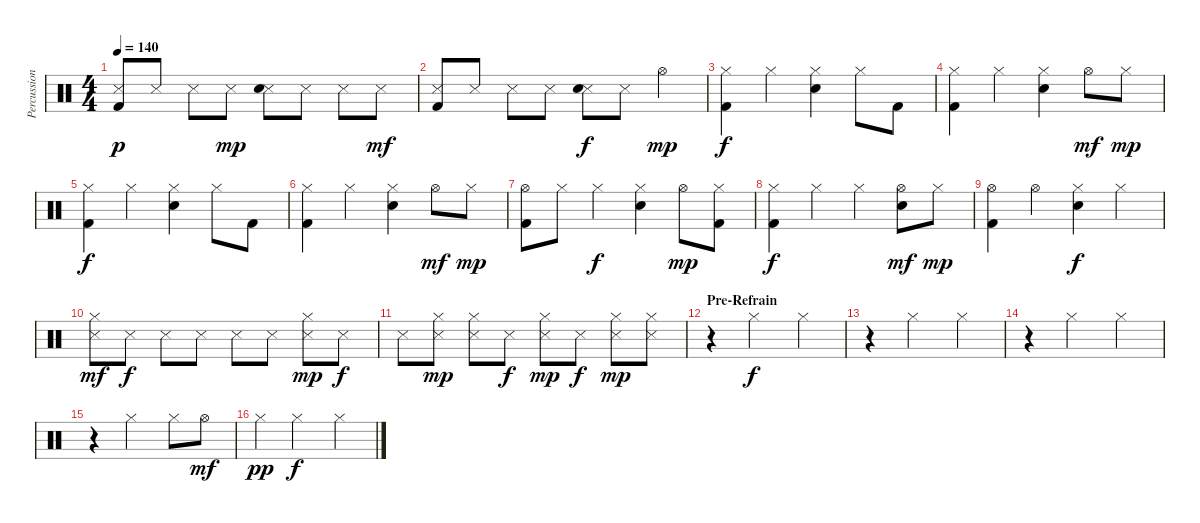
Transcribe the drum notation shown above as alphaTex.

\track ("Percussion" "Percussion") {instrument percussion}
\staff {score}
\articulation defaults
\ts (4 4)
\tempo 140
\clef neutral
\ks c
("Snare (side stick) 3" "Kick (hit) 2").8{dy p} "Snare (side stick) 3".8 "Snare (side stick) 3".8 "Snare (side stick) 3".8{dy mp} ("Snare (side stick) 3" "Electric Snare (hit)").8 "Snare (side stick) 3".8 "Snare (side stick) 3".8 "Snare (side stick) 3".8{dy mf} |
("Snare (side stick) 3" "Kick (hit) 2").8 "Snare (side stick) 3".8 "Snare (side stick) 3".8 "Snare (side stick) 3".8 ("Snare (side stick) 3" "Electric Snare (hit)").8{dy f} "Snare (side stick) 3".8 "Hi-Hat (open)".4{dy mp} |
("Hi-Hat (closed)" "Kick (hit) 2").4{dy f} "Hi-Hat (closed)".4 ("Hi-Hat (closed)" "Electric Snare (hit)").4 "Hi-Hat (closed)".8 "Kick (hit) 2".8 |
("Hi-Hat (closed)" "Kick (hit) 2").4 "Hi-Hat (closed)".4 ("Hi-Hat (closed)" "Electric Snare (hit)").4 "Hi-Hat (open)".8{dy mf} "Hi-Hat (closed)".8{dy mp} |
("Hi-Hat (closed)" "Kick (hit) 2").4{dy f} "Hi-Hat (closed)".4 ("Hi-Hat (closed)" "Electric Snare (hit)").4 "Hi-Hat (closed)".8 "Kick (hit) 2".8 |
("Hi-Hat (closed)" "Kick (hit) 2").4 "Hi-Hat (closed)".4 ("Hi-Hat (closed)" "Electric Snare (hit)").4 "Hi-Hat (open)".8{dy mf} "Hi-Hat (closed)".8{dy mp} |
("Hi-Hat (open)" "Kick (hit) 2").8 "Hi-Hat (closed)".8 "Hi-Hat (closed)".4{dy f} ("Hi-Hat (closed)" "Electric Snare (hit)").4 "Hi-Hat (open)".8{dy mp} ("Hi-Hat (closed)" "Kick (hit) 2").8 |
("Hi-Hat (closed)" "Kick (hit) 2").4{dy f} "Hi-Hat (closed)".4 "Hi-Hat (closed)".4 ("Hi-Hat (open)" "Electric Snare (hit)").8{dy mf} "Hi-Hat (closed)".8{dy mp} |
("Hi-Hat (open)" "Kick (hit) 2").4 "Hi-Hat (open)".4 ("Hi-Hat (closed)" "Electric Snare (hit)").4{dy f} "Hi-Hat (closed)".4 |
("Hi-Hat (closed)" "Snare (side stick) 3").8{dy mf} "Snare (side stick) 3".8{dy f} "Snare (side stick) 3".8 "Snare (side stick) 3".8 "Snare (side stick) 3".8 "Snare (side stick) 3".8 ("Hi-Hat (closed)" "Snare (side stick) 3").8{dy mp} "Snare (side stick) 3".8{dy f} |
"Snare (side stick) 3".8 ("Hi-Hat (closed)" "Snare (side stick) 3").8{dy mp} ("Hi-Hat (closed)" "Snare (side stick) 3").8 "Snare (side stick) 3".8{dy f} ("Hi-Hat (closed)" "Snare (side stick) 3").8{dy mp} "Snare (side stick) 3".8{dy f} ("Hi-Hat (closed)" "Snare (side stick) 3").8{dy mp} ("Hi-Hat (closed)" "Snare (side stick) 3").8 |
\section ("" "Pre-Refrain")
r.4 "Hi-Hat (closed)".2{dy f} "Hi-Hat (closed)".4 |
r.4 "Hi-Hat (closed)".2 "Hi-Hat (closed)".4 |
r.4 "Hi-Hat (closed)".2 "Hi-Hat (closed)".4 |
r.4 "Hi-Hat (closed)".2 "Hi-Hat (closed)".8 "Hi-Hat (open)".8{dy mf} |
"Hi-Hat (closed)".4{dy pp} "Hi-Hat (closed)".2{dy f} "Hi-Hat (closed)".4
